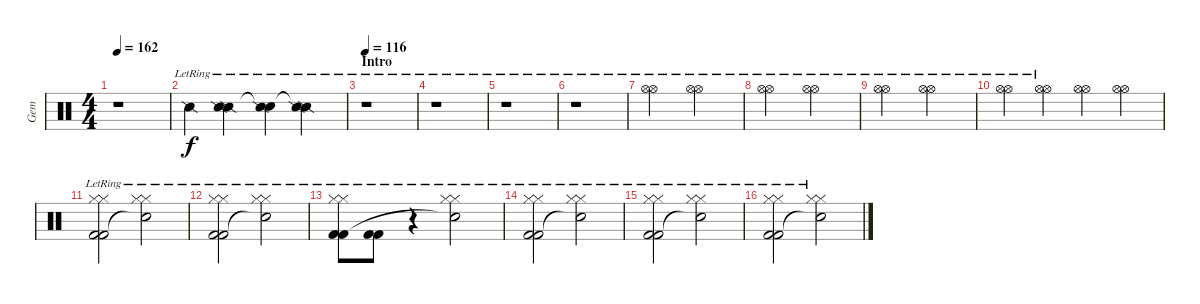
\track ("Gem" "Gem") {instrument percussion}
\staff {score}
\articulation defaults
\ts (4 4)
\tempo 162
\tempo 116
\tempo 162
\clef neutral
\ks c
r.1{dy f} |
"Snare (side stick) 2"{lr}.4 ("Snare (side stick) 2"{lr} "Snare (side stick) 2").4 ("Snare (hit)"{t} "Snare (side stick) 2"{lr}).4 ("Snare (side stick) 2"{lr} "Snare (side stick) 2"{t}).4 |
\section ("" "Intro")
\tempo 116
r.1 |
r.1 |
r.1 |
r.1 |
("Hi-Hat (open)"{lr} "Hi-Hat (open)"{lr}).2 ("Hi-Hat (open)"{lr} "Hi-Hat (open)").2 |
("Hi-Hat (open)"{lr} "Hi-Hat (open)"{lr}).2 ("Hi-Hat (open)"{lr} "Hi-Hat (open)").2 |
("Hi-Hat (open)"{lr} "Hi-Hat (open)"{lr}).2 ("Hi-Hat (open)"{lr} "Hi-Hat (open)").2 |
("Hi-Hat (open)"{lr} "Hi-Hat (open)"{lr}).4 ("Hi-Hat (open)"{lr} "Hi-Hat (open)").4 ("Hi-Hat (open)" "Hi-Hat (open)").4 ("Hi-Hat (open)" "Hi-Hat (open)").4 |
("Hi-Hat (closed)"{lr} "Hi-Hat (closed)"{lr} "Kick (hit) 2" "Kick (hit) 2"{lr}).2 ("Hi-Hat (closed)"{lr} "Hi-Hat (closed)"{lr} "Snare (hit)"{t}).2 |
("Hi-Hat (closed)"{lr} "Hi-Hat (closed)"{lr} "Kick (hit) 2" "Kick (hit) 2"{lr}).2 ("Hi-Hat (closed)"{lr} "Hi-Hat (closed)"{lr} "Snare (hit)"{t}).2 |
("Hi-Hat (closed)"{lr} "Hi-Hat (closed)"{lr} "Kick (hit) 2" "Kick (hit) 2"{lr}).8 ("Kick (hit) 2" "Kick (hit) 2"{lr}).8 r.4 ("Hi-Hat (closed)"{lr} "Hi-Hat (closed)"{lr} "Snare (hit)"{t}).2 |
("Hi-Hat (closed)"{lr} "Hi-Hat (closed)"{lr} "Kick (hit) 2" "Kick (hit) 2"{lr}).2 ("Hi-Hat (closed)"{lr} "Hi-Hat (closed)"{lr} "Snare (hit)"{t}).2 |
("Hi-Hat (closed)"{lr} "Hi-Hat (closed)"{lr} "Kick (hit) 2" "Kick (hit) 2"{lr}).2 ("Hi-Hat (closed)"{lr} "Hi-Hat (closed)"{lr} "Snare (hit)"{t}).2 |
("Hi-Hat (closed)"{lr} "Hi-Hat (closed)"{lr} "Kick (hit) 2" "Kick (hit) 2"{lr}).2 ("Hi-Hat (closed)"{lr} "Hi-Hat (closed)"{lr} "Snare (hit)"{t}).2
